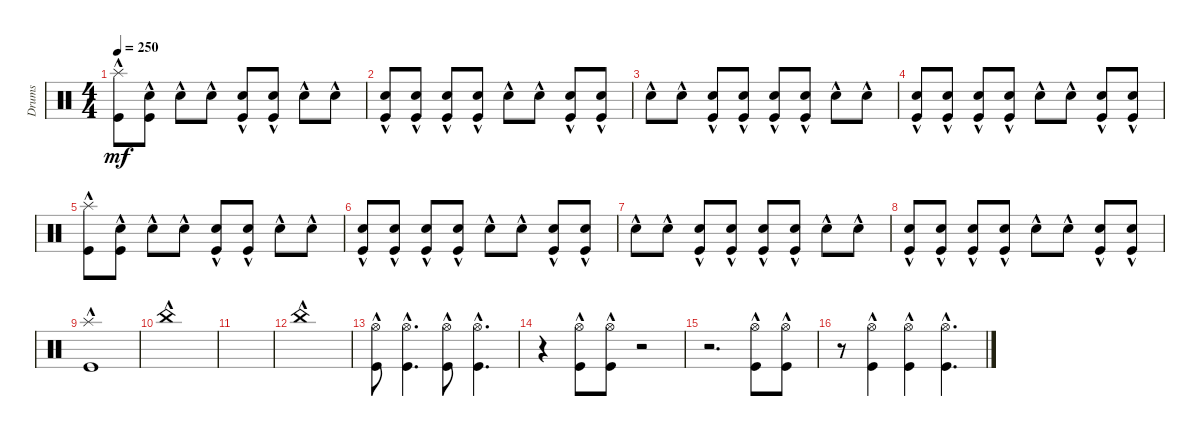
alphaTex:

\track ("Drums" "Drums") {instrument percussion}
\staff {score}
\articulation defaults
\ts (4 4)
\tempo 250
\clef neutral
\ks c
("Kick (hit)"{hac} "Splash (hit)"{hac}).8{dy mf} ("Snare (hit) 2"{hac} "Kick (hit)"{hac}).8 "Snare (hit) 2"{hac}.8 "Snare (hit) 2"{hac}.8 ("Snare (hit) 2"{hac} "Kick (hit)"{hac}).8 ("Snare (hit) 2"{hac} "Kick (hit)"{hac}).8 "Snare (hit) 2"{hac}.8 "Snare (hit) 2"{hac}.8 |
("Snare (hit) 2"{hac} "Kick (hit)"{hac}).8 ("Snare (hit) 2"{hac} "Kick (hit)"{hac}).8 ("Snare (hit) 2"{hac} "Kick (hit)"{hac}).8 ("Snare (hit) 2"{hac} "Kick (hit)"{hac}).8 "Snare (hit) 2"{hac}.8 "Snare (hit) 2"{hac}.8 ("Snare (hit) 2"{hac} "Kick (hit)"{hac}).8 ("Snare (hit) 2"{hac} "Kick (hit)"{hac}).8 |
"Snare (hit) 2"{hac}.8 "Snare (hit) 2"{hac}.8 ("Snare (hit) 2"{hac} "Kick (hit)"{hac}).8 ("Snare (hit) 2"{hac} "Kick (hit)"{hac}).8 ("Snare (hit) 2"{hac} "Kick (hit)"{hac}).8 ("Snare (hit) 2"{hac} "Kick (hit)"{hac}).8 "Snare (hit) 2"{hac}.8 "Snare (hit) 2"{hac}.8 |
("Snare (hit) 2"{hac} "Kick (hit)"{hac}).8 ("Snare (hit) 2"{hac} "Kick (hit)"{hac}).8 ("Snare (hit) 2"{hac} "Kick (hit)"{hac}).8 ("Snare (hit) 2"{hac} "Kick (hit)"{hac}).8 "Snare (hit) 2"{hac}.8 "Snare (hit) 2"{hac}.8 ("Snare (hit) 2"{hac} "Kick (hit)"{hac}).8 ("Snare (hit) 2"{hac} "Kick (hit)"{hac}).8 |
("Kick (hit)"{hac} "Splash (hit)"{hac}).8 ("Snare (hit) 2"{hac} "Kick (hit)"{hac}).8 "Snare (hit) 2"{hac}.8 "Snare (hit) 2"{hac}.8 ("Snare (hit) 2"{hac} "Kick (hit)"{hac}).8 ("Snare (hit) 2"{hac} "Kick (hit)"{hac}).8 "Snare (hit) 2"{hac}.8 "Snare (hit) 2"{hac}.8 |
("Snare (hit) 2"{hac} "Kick (hit)"{hac}).8 ("Snare (hit) 2"{hac} "Kick (hit)"{hac}).8 ("Snare (hit) 2"{hac} "Kick (hit)"{hac}).8 ("Snare (hit) 2"{hac} "Kick (hit)"{hac}).8 "Snare (hit) 2"{hac}.8 "Snare (hit) 2"{hac}.8 ("Snare (hit) 2"{hac} "Kick (hit)"{hac}).8 ("Snare (hit) 2"{hac} "Kick (hit)"{hac}).8 |
"Snare (hit) 2"{hac}.8 "Snare (hit) 2"{hac}.8 ("Snare (hit) 2"{hac} "Kick (hit)"{hac}).8 ("Snare (hit) 2"{hac} "Kick (hit)"{hac}).8 ("Snare (hit) 2"{hac} "Kick (hit)"{hac}).8 ("Snare (hit) 2"{hac} "Kick (hit)"{hac}).8 "Snare (hit) 2"{hac}.8 "Snare (hit) 2"{hac}.8 |
("Snare (hit) 2"{hac} "Kick (hit)"{hac}).8 ("Snare (hit) 2"{hac} "Kick (hit)"{hac}).8 ("Snare (hit) 2"{hac} "Kick (hit)"{hac}).8 ("Snare (hit) 2"{hac} "Kick (hit)"{hac}).8 "Snare (hit) 2"{hac}.8 "Snare (hit) 2"{hac}.8 ("Snare (hit) 2"{hac} "Kick (hit)"{hac}).8 ("Snare (hit) 2"{hac} "Kick (hit)"{hac}).8 |
("Kick (hit)"{hac} "Splash (hit)"{hac}).1 |
"China (hit)"{hac}.1 |
|
"China (hit)"{hac}.1 |
("Kick (hit)"{hac} "Hi-Hat (open)"{hac}).8 ("Kick (hit)"{hac} "Hi-Hat (open)"{hac}).4{d} ("Kick (hit)"{hac} "Hi-Hat (open)"{hac}).8 ("Kick (hit)"{hac} "Hi-Hat (open)"{hac}).4{d} |
r.4 ("Kick (hit)"{hac} "Hi-Hat (open)"{hac}).8 ("Kick (hit)"{hac} "Hi-Hat (open)"{hac}).8 r.2 |
r.2{d} ("Kick (hit)"{hac} "Hi-Hat (open)"{hac}).8 ("Kick (hit)"{hac} "Hi-Hat (open)"{hac}).8 |
r.8 ("Kick (hit)"{hac} "Hi-Hat (open)"{hac}).4 ("Kick (hit)"{hac} "Hi-Hat (open)"{hac}).4 ("Kick (hit)"{hac} "Hi-Hat (open)"{hac}).4{d}
